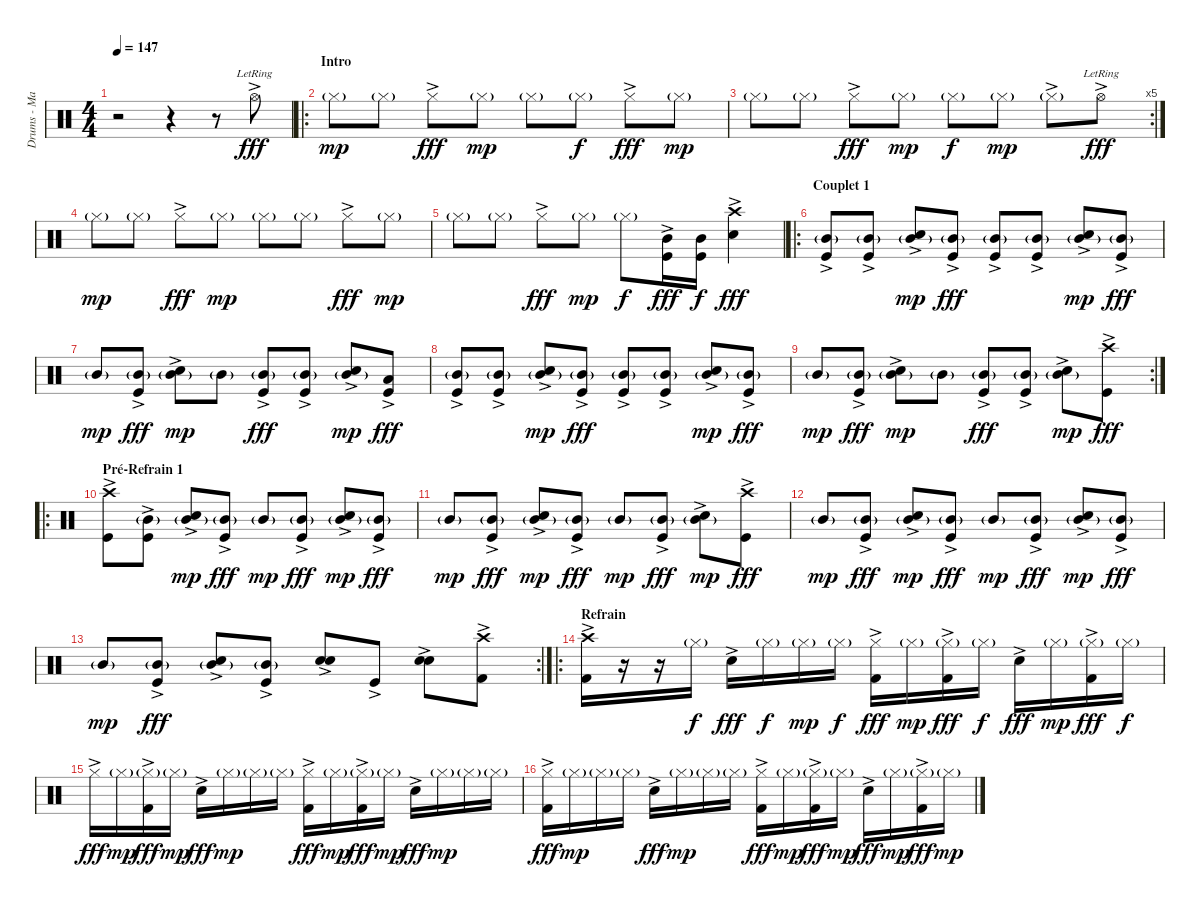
\track ("Drums - Manu" "Drums - Ma") {instrument percussion}
\staff {score}
\articulation defaults
\ts (4 4)
\tempo 147
\clef neutral
\ks c
r.2{dy fff} r.4 r.8 "Hi-Hat (open)"{ac lr}.8 |
\ro
\section ("" "Intro")
"Hi-Hat (closed)"{g}.8{dy mp} "Hi-Hat (closed)"{g}.8 "Hi-Hat (closed)"{ac}.8{dy fff} "Hi-Hat (closed)"{g}.8{dy mp} "Hi-Hat (closed)"{g}.8 "Hi-Hat (closed)"{g}.8{dy f} "Hi-Hat (closed)"{ac}.8{dy fff} "Hi-Hat (closed)"{g}.8{dy mp} |
\rc 5 "Hi-Hat (closed)"{g}.8 "Hi-Hat (closed)"{g}.8 "Hi-Hat (closed)"{ac}.8{dy fff} "Hi-Hat (closed)"{g}.8{dy mp} "Hi-Hat (closed)"{g}.8{dy f} "Hi-Hat (closed)"{g}.8{dy mp} "Hi-Hat (closed)"{g ac}.8 "Hi-Hat (open)"{ac lr}.8{dy fff}
|
"Hi-Hat (closed)"{g}.8{dy mp} "Hi-Hat (closed)"{g}.8 "Hi-Hat (closed)"{ac}.8{dy fff} "Hi-Hat (closed)"{g}.8{dy mp} "Hi-Hat (closed)"{g}.8 "Hi-Hat (closed)"{g}.8 "Hi-Hat (closed)"{ac}.8{dy fff} "Hi-Hat (closed)"{g}.8{dy mp} |
"Hi-Hat (closed)"{g}.8 "Hi-Hat (closed)"{g}.8 "Hi-Hat (closed)"{ac}.8{dy fff} "Hi-Hat (closed)"{g}.8{dy mp} "Hi-Hat (closed)"{g}.8{dy f} ("Mid Tom (hit)" "Kick (hit)"{ac}).16{dy fff} ("Mid Tom (hit)" "Kick (hit)").16{dy f} ("Crash high (hit)"{ac} "Snare (hit) 2"{ac}).4{dy fff} |
\ro
\section ("" "Couplet 1")
("Mid Tom (hit)"{g ac} "Kick (hit)"{ac}).8 ("Mid Tom (hit)"{g} "Kick (hit)"{ac}).8 ("Snare (hit) 2"{ac} "Mid Tom (hit)"{g}).8{dy mp} ("Mid Tom (hit)"{g} "Kick (hit)"{ac}).8{dy fff} ("Mid Tom (hit)"{g} "Kick (hit)"{ac}).8 ("Mid Tom (hit)"{g} "Kick (hit)"{ac}).8 ("Snare (hit) 2"{ac} "Mid Tom (hit)"{g}).8{dy mp} ("Mid Tom (hit)"{g} "Kick (hit)"{ac}).8{dy fff} |
"Mid Tom (hit)"{g}.8{dy mp} ("Mid Tom (hit)"{g} "Kick (hit)"{ac}).8{dy fff} ("Snare (hit) 2"{ac} "Mid Tom (hit)"{g}).8{dy mp} "Mid Tom (hit)"{g}.8 ("Mid Tom (hit)"{g} "Kick (hit)"{ac}).8{dy fff} ("Mid Tom (hit)"{g} "Kick (hit)"{ac}).8 ("Snare (hit) 2"{ac} "Mid Tom (hit)"{g}).8{dy mp} ("Low Tom (hit)" "Kick (hit)"{ac}).8{dy fff} |
("Mid Tom (hit)"{g ac} "Kick (hit)"{ac}).8 ("Mid Tom (hit)"{g} "Kick (hit)"{ac}).8 ("Snare (hit) 2"{ac} "Mid Tom (hit)"{g}).8{dy mp} ("Mid Tom (hit)"{g} "Kick (hit)"{ac}).8{dy fff} ("Mid Tom (hit)"{g} "Kick (hit)"{ac}).8 ("Mid Tom (hit)"{g} "Kick (hit)"{ac}).8 ("Snare (hit) 2"{ac} "Mid Tom (hit)"{g}).8{dy mp} ("Mid Tom (hit)"{g} "Kick (hit)"{ac}).8{dy fff} |
\rc 2 "Mid Tom (hit)"{g}.8{dy mp}
("Mid Tom (hit)"{g} "Kick (hit)"{ac}).8{dy fff} ("Snare (hit) 2"{ac} "Mid Tom (hit)"{g}).8{dy mp} "Mid Tom (hit)"{g}.8 ("Mid Tom (hit)"{g} "Kick (hit)"{ac}).8{dy fff} ("Mid Tom (hit)"{g} "Kick (hit)"{ac}).8 ("Snare (hit) 2"{ac} "Mid Tom (hit)"{g}).8{dy mp} ("Crash high (hit)"{ac} "Kick (hit)"{ac}).8{dy fff} |
\ro
\section ("" "Pré-Refrain 1")
("Crash high (hit)"{ac} "Kick (hit)"{ac}).8 ("Mid Tom (hit)"{g} "Kick (hit)"{ac}).8 ("Snare (hit) 2"{ac} "Mid Tom (hit)"{g}).8{dy mp} ("Mid Tom (hit)"{g} "Kick (hit)"{ac}).8{dy fff} "Mid Tom (hit)"{g}.8{dy mp} ("Mid Tom (hit)"{g} "Kick (hit)"{ac}).8{dy fff} ("Snare (hit) 2"{ac} "Mid Tom (hit)"{g}).8{dy mp} ("Mid Tom (hit)"{g} "Kick (hit)"{ac}).8{dy fff} |
"Mid Tom (hit)"{g}.8{dy mp} ("Mid Tom (hit)"{g} "Kick (hit)"{ac}).8{dy fff} ("Snare (hit) 2"{ac} "Mid Tom (hit)"{g}).8{dy mp} ("Mid Tom (hit)"{g} "Kick (hit)"{ac}).8{dy fff} "Mid Tom (hit)"{g}.8{dy mp} ("Mid Tom (hit)"{g} "Kick (hit)"{ac}).8{dy fff} ("Snare (hit) 2"{ac} "Mid Tom (hit)"{g}).8{dy mp} ("Crash high (hit)"{ac} "Kick (hit)"{ac}).8{dy fff} |
"Mid Tom (hit)"{g}.8{dy mp} ("Mid Tom (hit)"{g} "Kick (hit)"{ac}).8{dy fff} ("Snare (hit) 2"{ac} "Mid Tom (hit)"{g}).8{dy mp} ("Mid Tom (hit)"{g} "Kick (hit)"{ac}).8{dy fff} "Mid Tom (hit)"{g}.8{dy mp} ("Mid Tom (hit)"{g} "Kick (hit)"{ac}).8{dy fff} ("Snare (hit) 2"{ac} "Mid Tom (hit)"{g}).8{dy mp} ("Mid Tom (hit)"{g} "Kick (hit)"{ac}).8{dy fff} |
\rc 2 "Mid Tom (hit)"{g}.8{dy mp}
("Mid Tom (hit)"{g} "Kick (hit)"{ac}).8{dy fff} ("Mid Tom (hit)"{g} "Snare (hit) 2"{ac}).8 ("Mid Tom (hit)"{g} "Kick (hit)"{ac}).8 ("Snare (hit) 2"{ac} "Snare (hit) 2"{ac}).8 "Kick (hit)"{ac}.8 ("Snare (hit) 2"{ac} "Snare (hit) 2"{ac}).8 ("Crash high (hit)"{ac} "Kick (hit) 2"{ac}).8 |
\ro
\section ("" "Refrain")
("Crash high (hit)"{ac} "Kick (hit) 2"{ac}).16 r.16 r.16 "Hi-Hat (closed)"{g}.16{dy f} "Snare (hit) 2"{ac}.16{dy fff} "Hi-Hat (closed)"{g}.16{dy f} "Hi-Hat (closed)"{g}.16{dy mp} "Hi-Hat (closed)"{g}.16{dy f} ("Hi-Hat (closed)"{ac} "Kick (hit) 2"{ac}).16{dy fff} "Hi-Hat (closed)"{g}.16{dy mp} ("Hi-Hat (closed)"{g} "Kick (hit) 2"{ac}).16{dy fff} "Hi-Hat (closed)"{g}.16{dy f} "Snare (hit) 2"{ac}.16{dy fff} "Hi-Hat (closed)"{g}.16{dy mp} ("Hi-Hat (closed)"{g} "Kick (hit) 2"{ac}).16{dy fff} "Hi-Hat (closed)"{g}.16{dy f} |
"Hi-Hat (closed)"{ac}.16{dy fff} "Hi-Hat (closed)"{g}.16{dy mp} ("Hi-Hat (closed)"{g} "Kick (hit) 2"{ac}).16{dy fff} "Hi-Hat (closed)"{g}.16{dy mp} "Snare (hit) 2"{ac}.16{dy fff} "Hi-Hat (closed)"{g}.16{dy mp} "Hi-Hat (closed)"{g}.16 "Hi-Hat (closed)"{g}.16 ("Hi-Hat (closed)"{ac} "Kick (hit) 2"{ac}).16{dy fff} "Hi-Hat (closed)"{g}.16{dy mp} ("Hi-Hat (closed)"{g} "Kick (hit) 2"{ac}).16{dy fff} "Hi-Hat (closed)"{g}.16{dy mp} "Snare (hit) 2"{ac}.16{dy fff} "Hi-Hat (closed)"{g}.16{dy mp} "Hi-Hat (closed)"{g}.16 "Hi-Hat (closed)"{g}.16 |
("Hi-Hat (closed)"{ac} "Kick (hit) 2"{ac}).16{dy fff} "Hi-Hat (closed)"{g}.16{dy mp} "Hi-Hat (closed)"{g}.16 "Hi-Hat (closed)"{g}.16 "Snare (hit) 2"{ac}.16{dy fff} "Hi-Hat (closed)"{g}.16{dy mp} "Hi-Hat (closed)"{g}.16 "Hi-Hat (closed)"{g}.16 ("Hi-Hat (closed)"{ac} "Kick (hit) 2"{ac}).16{dy fff} "Hi-Hat (closed)"{g}.16{dy mp} ("Hi-Hat (closed)"{g} "Kick (hit) 2"{ac}).16{dy fff} "Hi-Hat (closed)"{g}.16{dy mp} "Snare (hit) 2"{ac}.16{dy fff} "Hi-Hat (closed)"{g}.16{dy mp} ("Hi-Hat (closed)"{g} "Kick (hit) 2"{ac}).16{dy fff} "Hi-Hat (closed)"{g}.16{dy mp}
